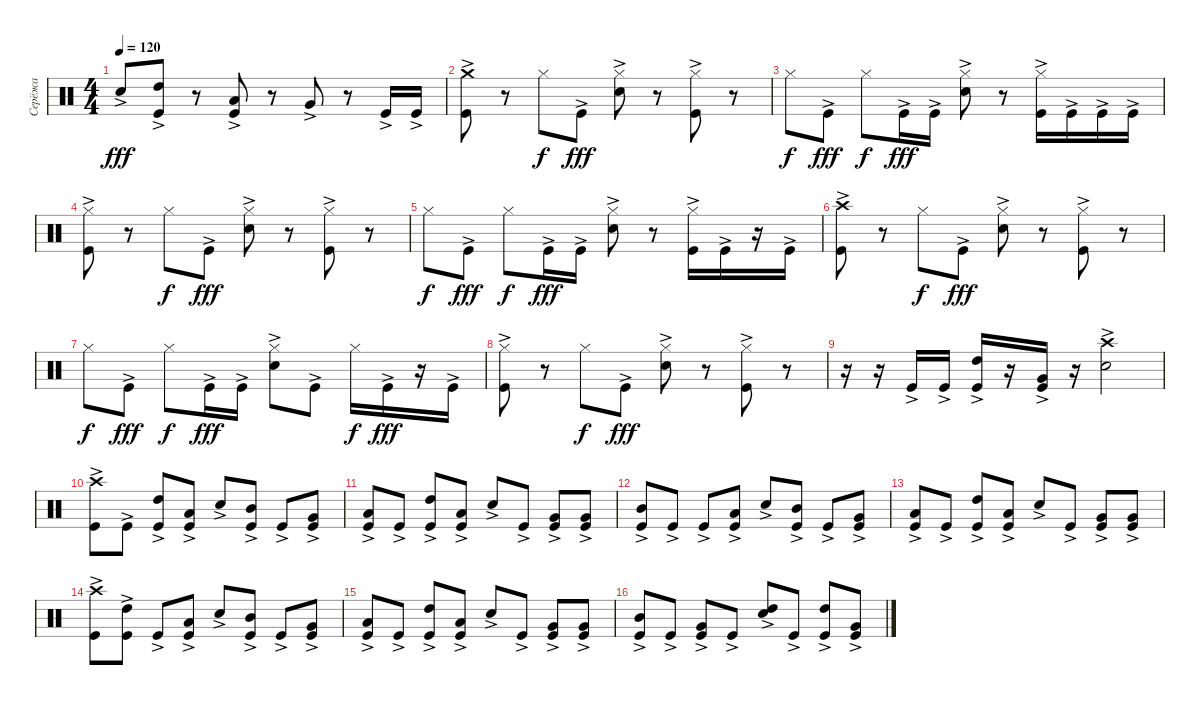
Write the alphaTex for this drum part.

\track ("Серёжа" "Серёжа") {instrument percussion}
\staff {score}
\articulation defaults
\ts (4 4)
\tempo 120
\clef neutral
\ks c "Snare (hit) 2"{ac}.8{dy fff}
("Kick (hit)"{ac} "High Tom (hit)"{ac}).8 r.8 ("Kick (hit)"{ac} "Low Tom (hit)"{ac}).8 r.8 "Very Low Tom (hit)"{ac}.8 r.8 "Kick (hit)"{ac}.16 "Kick (hit)"{ac}.16 |
("Crash medium (hit)"{ac} "Kick (hit)"{ac}).8 r.8 "Hi-Hat (closed)".8{dy f} "Kick (hit)"{ac}.8{dy fff} ("Hi-Hat (closed)" "Snare (hit) 2"{ac}).8 r.8 ("Hi-Hat (closed)" "Kick (hit)"{ac}).8 r.8 |
"Hi-Hat (closed)".8{dy f} "Kick (hit)"{ac}.8{dy fff} "Hi-Hat (closed)".8{dy f} "Kick (hit)"{ac}.16{dy fff} "Kick (hit)"{ac}.16 ("Hi-Hat (closed)" "Snare (hit) 2"{ac}).8 r.8 ("Hi-Hat (closed)" "Kick (hit)"{ac}).16 "Kick (hit)"{ac}.16 "Kick (hit)"{ac}.16 "Kick (hit)"{ac}.16 |
("Hi-Hat (closed)" "Kick (hit)"{ac}).8 r.8 "Hi-Hat (closed)".8{dy f} "Kick (hit)"{ac}.8{dy fff} ("Hi-Hat (closed)" "Snare (hit) 2"{ac}).8 r.8 ("Hi-Hat (closed)" "Kick (hit)"{ac}).8 r.8 |
"Hi-Hat (closed)".8{dy f} "Kick (hit)"{ac}.8{dy fff} "Hi-Hat (closed)".8{dy f} "Kick (hit)"{ac}.16{dy fff} "Kick (hit)"{ac}.16 ("Hi-Hat (closed)" "Snare (hit) 2"{ac}).8 r.8 ("Hi-Hat (closed)" "Kick (hit)"{ac}).16 "Kick (hit)"{ac}.16 r.16 "Kick (hit)"{ac}.16 |
("Crash high (hit)"{ac} "Kick (hit)"{ac}).8 r.8 "Hi-Hat (closed)".8{dy f} "Kick (hit)"{ac}.8{dy fff} ("Hi-Hat (closed)" "Snare (hit) 2"{ac}).8 r.8 ("Hi-Hat (closed)" "Kick (hit)"{ac}).8 r.8 |
"Hi-Hat (closed)".8{dy f} "Kick (hit)"{ac}.8{dy fff} "Hi-Hat (closed)".8{dy f} "Kick (hit)"{ac}.16{dy fff} "Kick (hit)"{ac}.16 ("Hi-Hat (closed)" "Snare (hit) 2"{ac}).8 "Kick (hit)"{ac}.8 "Hi-Hat (closed)".16{dy f} "Kick (hit)"{ac}.16{dy fff} r.16 "Kick (hit)"{ac}.16 |
("Hi-Hat (closed)" "Kick (hit)"{ac}).8 r.8 "Hi-Hat (closed)".8{dy f} "Kick (hit)"{ac}.8{dy fff} ("Hi-Hat (closed)" "Snare (hit) 2"{ac}).8 r.8 ("Hi-Hat (closed)" "Kick (hit)"{ac}).8 r.8 |
r.16 r.16 "Kick (hit)"{ac}.16 "Kick (hit)"{ac}.16 ("High Tom (hit)"{ac} "Kick (hit)"{ac}).16 r.16 ("Very Low Tom (hit)"{ac} "Kick (hit)"{ac}).16 r.16 ("Crash high (hit)"{ac} "Snare (hit) 2"{ac}).2 |
("Crash high (hit)"{ac} "Kick (hit)"{ac}).8 "Kick (hit)"{ac}.8 ("High Tom (hit)"{ac} "Kick (hit)"{ac}).8 ("Low Tom (hit)"{ac} "Kick (hit)"{ac}).8 "Snare (hit) 2"{ac}.8 ("Mid Tom (hit)"{ac} "Kick (hit)"{ac}).8 "Kick (hit)"{ac}.8 ("Very Low Tom (hit)"{ac} "Kick (hit)"{ac}).8 |
("Low Tom (hit)"{ac} "Kick (hit)"{ac}).8 "Kick (hit)"{ac}.8 ("High Tom (hit)" "Kick (hit)"{ac}).8 ("Low Tom (hit)" "Kick (hit)"{ac}).8 "Snare (hit) 2"{ac}.8 "Kick (hit)"{ac}.8 ("Very Low Tom (hit)"{ac} "Kick (hit)"{ac}).8 ("Very Low Tom (hit)"{ac} "Kick (hit)"{ac}).8 |
("Mid Tom (hit)"{ac} "Kick (hit)"{ac}).8 "Kick (hit)"{ac}.8 "Kick (hit)"{ac}.8 ("Low Tom (hit)"{ac} "Kick (hit)"{ac}).8 "Snare (hit) 2"{ac}.8 ("Mid Tom (hit)"{ac} "Kick (hit)"{ac}).8 "Kick (hit)"{ac}.8 ("Very Low Tom (hit)"{ac} "Kick (hit)"{ac}).8 |
("Low Tom (hit)"{ac} "Kick (hit)"{ac}).8 "Kick (hit)"{ac}.8 ("High Tom (hit)" "Kick (hit)"{ac}).8 ("Low Tom (hit)" "Kick (hit)"{ac}).8 "Snare (hit) 2"{ac}.8 "Kick (hit)"{ac}.8 ("Very Low Tom (hit)"{ac} "Kick (hit)"{ac}).8 ("Very Low Tom (hit)"{ac} "Kick (hit)"{ac}).8 |
("Crash high (hit)"{ac} "Kick (hit)"{ac}).8 ("High Tom (hit)"{ac} "Kick (hit)"{ac}).8 "Kick (hit)"{ac}.8 ("Low Tom (hit)"{ac} "Kick (hit)"{ac}).8 "Snare (hit) 2"{ac}.8 ("Mid Tom (hit)"{ac} "Kick (hit)"{ac}).8 "Kick (hit)"{ac}.8 ("Very Low Tom (hit)"{ac} "Kick (hit)"{ac}).8 |
("Low Tom (hit)"{ac} "Kick (hit)"{ac}).8 "Kick (hit)"{ac}.8 ("High Tom (hit)" "Kick (hit)"{ac}).8 ("Low Tom (hit)" "Kick (hit)"{ac}).8 "Snare (hit) 2"{ac}.8 "Kick (hit)"{ac}.8 ("Very Low Tom (hit)"{ac} "Kick (hit)"{ac}).8 ("Very Low Tom (hit)"{ac} "Kick (hit)"{ac}).8 |
("Mid Tom (hit)"{ac} "Kick (hit)"{ac}).8 "Kick (hit)"{ac}.8 ("Very Low Tom (hit)" "Kick (hit)"{ac}).8 "Kick (hit)"{ac}.8 ("High Tom (hit)" "Snare (hit) 2"{ac}).8 "Kick (hit)"{ac}.8 ("High Tom (hit)" "Kick (hit)"{ac}).8 ("Very Low Tom (hit)"{ac} "Kick (hit)"{ac}).8
